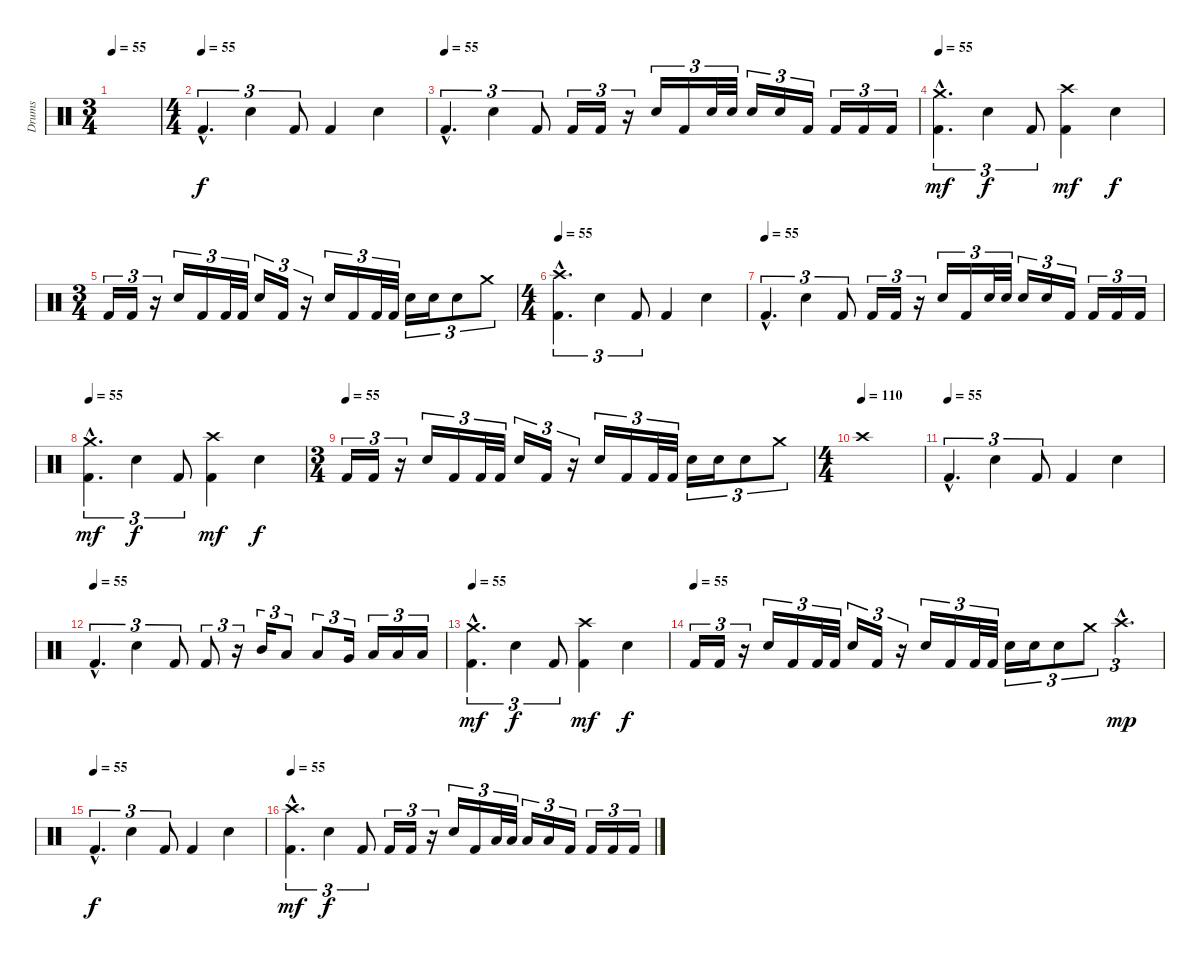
\track ("Drums" "Drums") {instrument percussion}
\staff {score}
\articulation defaults
\ts (3 4)
\tempo 55
\clef neutral
\ks c
|
\ts (4 4)
\tempo (55)
"Kick (hit) 2"{hac}.4{d tu (3 2)} "Electric Snare (hit)".4{tu (3 2)} "Kick (hit) 2".8{tu (3 2)} "Kick (hit) 2".4 "Electric Snare (hit)".4 |
\tempo (55)
"Kick (hit) 2"{hac}.4{d tu (3 2)} "Electric Snare (hit)".4{tu (3 2)} "Kick (hit) 2".8{tu (3 2)} "Kick (hit) 2".16{tu (3 2)} "Kick (hit) 2".16{tu (3 2)} r.16{tu (3 2)} "Electric Snare (hit)".16{tu (3 2)} "Kick (hit) 2".16{tu (3 2)} "Electric Snare (hit)".32{tu (3 2)} "Electric Snare (hit)".32{tu (3 2)} "Electric Snare (hit)".16{tu (3 2)} "Electric Snare (hit)".16{tu (3 2)} "Kick (hit) 2".16{tu (3 2)} "Kick (hit) 2".16{tu (3 2)} "Kick (hit) 2".16{tu (3 2)} "Kick (hit) 2".16{tu (3 2)} |
\tempo 55
("Crash medium (hit)"{hac} "Kick (hit) 2"{hac}).4{d tu (3 2) dy mf} "Electric Snare (hit)".4{tu (3 2) dy f} "Kick (hit) 2".8{tu (3 2)} ("Crash high (hit)" "Kick (hit) 2").4{dy mf} "Electric Snare (hit)".4{dy f} |
\ts (3 4)
"Kick (hit) 2".16{tu (3 2)} "Kick (hit) 2".16{tu (3 2)} r.16{tu (3 2)} "Electric Snare (hit)".16{tu (3 2)} "Kick (hit) 2".16{tu (3 2)} "Kick (hit) 2".32{tu (3 2)} "Kick (hit) 2".32{tu (3 2)} "Electric Snare (hit)".16{tu (3 2)} "Kick (hit) 2".16{tu (3 2)} r.16{tu (3 2)} "Electric Snare (hit)".16{tu (3 2)} "Kick (hit) 2".16{tu (3 2)} "Kick (hit) 2".32{tu (3 2)} "Kick (hit) 2".32{tu (3 2)} "Electric Snare (hit)".16{tu (3 2)} "Electric Snare (hit)".16{tu (3 2)} "Electric Snare (hit)".8{tu (3 2)} "Crash medium (hit)".8{tu (3 2)} |
\ts (4 4)
\tempo 55
("Crash high (hit)"{hac} "Kick (hit) 2"{hac}).4{d tu (3 2)} "Electric Snare (hit)".4{tu (3 2)} "Kick (hit) 2".8{tu (3 2)} "Kick (hit) 2".4 "Electric Snare (hit)".4 |
\tempo (55)
"Kick (hit) 2"{hac}.4{d tu (3 2)} "Electric Snare (hit)".4{tu (3 2)} "Kick (hit) 2".8{tu (3 2)} "Kick (hit) 2".16{tu (3 2)} "Kick (hit) 2".16{tu (3 2)} r.16{tu (3 2)} "Electric Snare (hit)".16{tu (3 2)} "Kick (hit) 2".16{tu (3 2)} "Electric Snare (hit)".32{tu (3 2)} "Electric Snare (hit)".32{tu (3 2)} "Electric Snare (hit)".16{tu (3 2)} "Electric Snare (hit)".16{tu (3 2)} "Kick (hit) 2".16{tu (3 2)} "Kick (hit) 2".16{tu (3 2)} "Kick (hit) 2".16{tu (3 2)} "Kick (hit) 2".16{tu (3 2)} |
\tempo 55
("Crash medium (hit)"{hac} "Kick (hit) 2"{hac}).4{d tu (3 2) dy mf} "Electric Snare (hit)".4{tu (3 2) dy f} "Kick (hit) 2".8{tu (3 2)} ("Crash high (hit)" "Kick (hit) 2").4{dy mf} "Electric Snare (hit)".4{dy f} |
\ts (3 4)
\tempo (55)
"Kick (hit) 2".16{tu (3 2)} "Kick (hit) 2".16{tu (3 2)} r.16{tu (3 2)} "Electric Snare (hit)".16{tu (3 2)} "Kick (hit) 2".16{tu (3 2)} "Kick (hit) 2".32{tu (3 2)} "Kick (hit) 2".32{tu (3 2)} "Electric Snare (hit)".16{tu (3 2)} "Kick (hit) 2".16{tu (3 2)} r.16{tu (3 2)} "Electric Snare (hit)".16{tu (3 2)} "Kick (hit) 2".16{tu (3 2)} "Kick (hit) 2".32{tu (3 2)} "Kick (hit) 2".32{tu (3 2)} "Electric Snare (hit)".16{tu (3 2)} "Electric Snare (hit)".16{tu (3 2)} "Electric Snare (hit)".8{tu (3 2)} "Crash medium (hit)".8{tu (3 2)} |
\ts (4 4)
\tempo (110)
"Crash high (hit)".1 |
\tempo (55)
"Kick (hit) 2"{hac}.4{d tu (3 2)} "Electric Snare (hit)".4{tu (3 2)} "Kick (hit) 2".8{tu (3 2)} "Kick (hit) 2".4 "Electric Snare (hit)".4 |
\tempo (55)
"Kick (hit) 2"{hac}.4{d tu (3 2)} "Electric Snare (hit)".4{tu (3 2)} "Kick (hit) 2".8{tu (3 2)} "Kick (hit) 2".8{tu (3 2)} r.16{tu (3 2)} "Mid Tom (hit)".16{tu (3 2)} "Low Tom (hit)".8{tu (3 2)} "Low Tom (hit)".8{tu (3 2)} "Very Low Tom (hit)".16{tu (3 2)} "Low Tom (hit)".16{tu (3 2)} "Low Tom (hit)".16{tu (3 2)} "Low Tom (hit)".16{tu (3 2)} |
\tempo 55
("Crash medium (hit)"{hac} "Kick (hit) 2"{hac}).4{d tu (3 2) dy mf} "Electric Snare (hit)".4{tu (3 2) dy f} "Kick (hit) 2".8{tu (3 2)} ("Crash high (hit)" "Kick (hit) 2").4{dy mf} "Electric Snare (hit)".4{dy f} |
\tempo (55)
"Kick (hit) 2".16{tu (3 2)} "Kick (hit) 2".16{tu (3 2)} r.16{tu (3 2)} "Electric Snare (hit)".16{tu (3 2)} "Kick (hit) 2".16{tu (3 2)} "Kick (hit) 2".32{tu (3 2)} "Kick (hit) 2".32{tu (3 2)} "Electric Snare (hit)".16{tu (3 2)} "Kick (hit) 2".16{tu (3 2)} r.16{tu (3 2)} "Electric Snare (hit)".16{tu (3 2)} "Kick (hit) 2".16{tu (3 2)} "Kick (hit) 2".32{tu (3 2)} "Kick (hit) 2".32{tu (3 2)} "Electric Snare (hit)".16{tu (3 2)} "Electric Snare (hit)".16{tu (3 2)} "Electric Snare (hit)".8{tu (3 2)} "Crash medium (hit)".8{tu (3 2)} "Crash high (hit)"{hac}.4{d tu (3 2) dy mp} |
\tempo (55)
"Kick (hit) 2"{hac}.4{d tu (3 2) dy f} "Electric Snare (hit)".4{tu (3 2)} "Kick (hit) 2".8{tu (3 2)} "Kick (hit) 2".4 "Electric Snare (hit)".4 |
\tempo 55
("Crash high (hit)"{hac} "Kick (hit) 2"{hac}).4{d tu (3 2) dy mf} "Electric Snare (hit)".4{tu (3 2) dy f} "Kick (hit) 2".8{tu (3 2)} "Kick (hit) 2".16{tu (3 2)} "Kick (hit) 2".16{tu (3 2)} r.16{tu (3 2)} "Electric Snare (hit)".16{tu (3 2)} "Kick (hit) 2".16{tu (3 2)} "Low Tom (hit)".32{tu (3 2)} "Low Tom (hit)".32{tu (3 2)} "Low Tom (hit)".16{tu (3 2)} "Low Tom (hit)".16{tu (3 2)} "Kick (hit) 2".16{tu (3 2)} "Kick (hit) 2".16{tu (3 2)} "Kick (hit) 2".16{tu (3 2)} "Kick (hit) 2".16{tu (3 2)}
